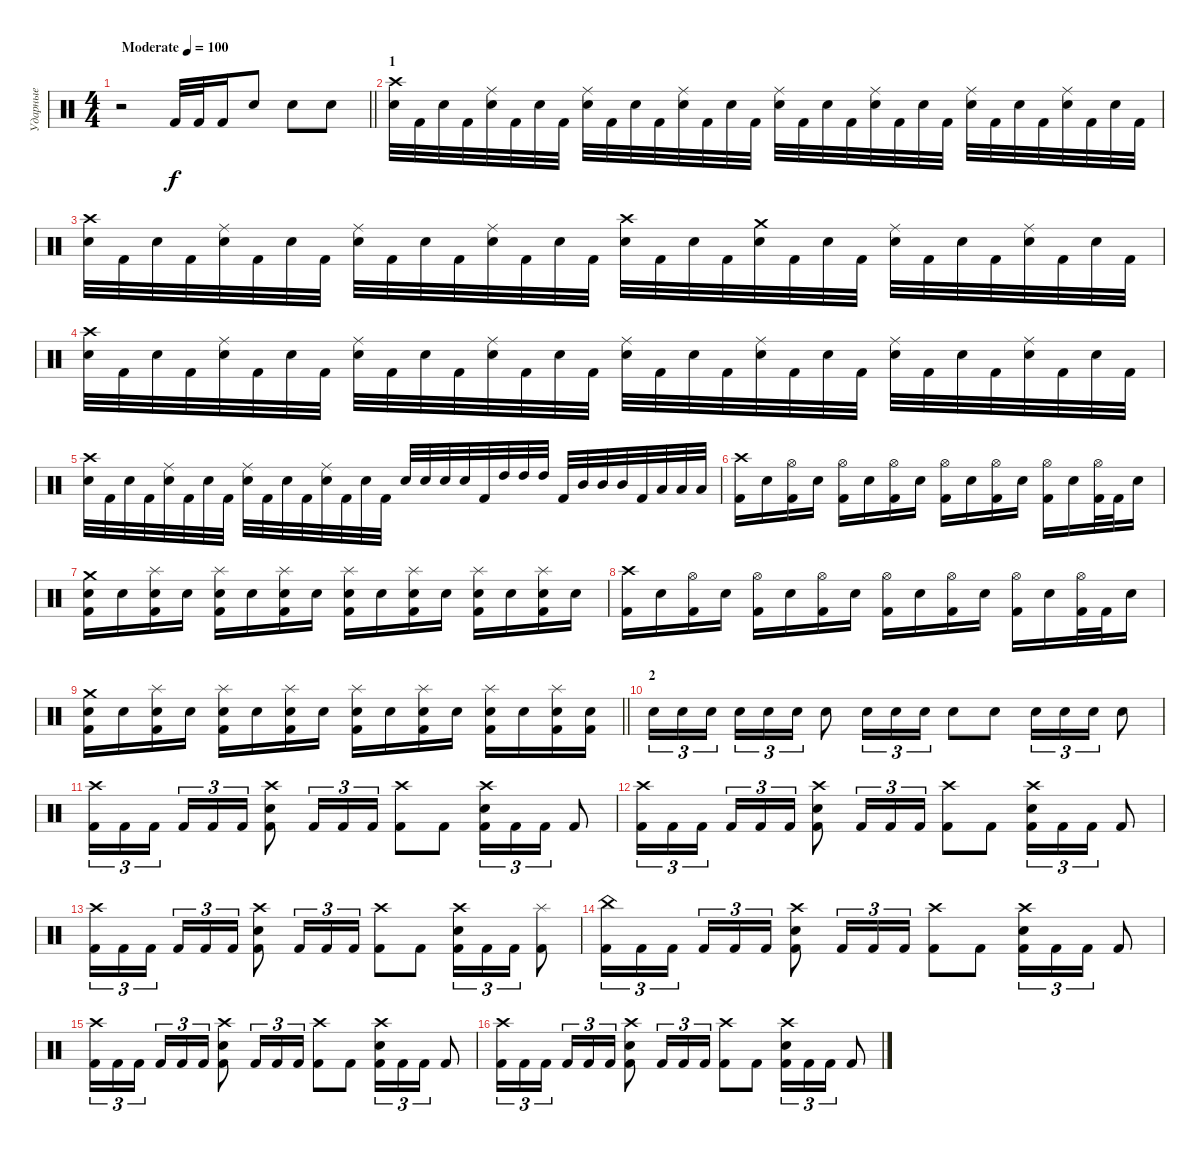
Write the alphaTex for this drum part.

\track ("Ударные" "Ударные") {instrument percussion}
\staff {score}
\articulation defaults
\ts (4 4)
\tempo (100 "Moderate")
\clef neutral
\barLineRight lightlight
\ks c
r.2{dy f} "Kick (hit) 2".32 "Kick (hit) 2".32 "Kick (hit) 2".16 "Electric Snare (hit)".8 "Electric Snare (hit)".8 "Electric Snare (hit)".8 |
\section ("" "1")
("Crash high (hit)" "Electric Snare (hit)").32 "Kick (hit) 2".32 "Electric Snare (hit)".32 "Kick (hit) 2".32 ("Ride (middle)" "Electric Snare (hit)").32 "Kick (hit) 2".32 "Electric Snare (hit)".32 "Kick (hit) 2".32 ("Ride (middle)" "Electric Snare (hit)").32 "Kick (hit) 2".32 "Electric Snare (hit)".32 "Kick (hit) 2".32 ("Ride (middle)" "Electric Snare (hit)").32 "Kick (hit) 2".32 "Electric Snare (hit)".32 "Kick (hit) 2".32 ("Ride (middle)" "Electric Snare (hit)").32 "Kick (hit) 2".32 "Electric Snare (hit)".32 "Kick (hit) 2".32 ("Ride (middle)" "Electric Snare (hit)").32 "Kick (hit) 2".32 "Electric Snare (hit)".32 "Kick (hit) 2".32 ("Ride (middle)" "Electric Snare (hit)").32 "Kick (hit) 2".32 "Electric Snare (hit)".32 "Kick (hit) 2".32 ("Ride (middle)" "Electric Snare (hit)").32 "Kick (hit) 2".32 "Electric Snare (hit)".32 "Kick (hit) 2".32 |
("Crash high (hit)" "Electric Snare (hit)").32 "Kick (hit) 2".32 "Electric Snare (hit)".32 "Kick (hit) 2".32 ("Ride (middle)" "Electric Snare (hit)").32 "Kick (hit) 2".32 "Electric Snare (hit)".32 "Kick (hit) 2".32 ("Ride (middle)" "Electric Snare (hit)").32 "Kick (hit) 2".32 "Electric Snare (hit)".32 "Kick (hit) 2".32 ("Ride (middle)" "Electric Snare (hit)").32 "Kick (hit) 2".32 "Electric Snare (hit)".32 "Kick (hit) 2".32 ("Crash high (hit)" "Electric Snare (hit)").32 "Kick (hit) 2".32 "Electric Snare (hit)".32 "Kick (hit) 2".32 ("Crash medium (hit)" "Electric Snare (hit)").32 "Kick (hit) 2".32 "Electric Snare (hit)".32 "Kick (hit) 2".32 ("Ride (middle)" "Electric Snare (hit)").32 "Kick (hit) 2".32 "Electric Snare (hit)".32 "Kick (hit) 2".32 ("Ride (middle)" "Electric Snare (hit)").32 "Kick (hit) 2".32 "Electric Snare (hit)".32 "Kick (hit) 2".32 |
("Crash high (hit)" "Electric Snare (hit)").32 "Kick (hit) 2".32 "Electric Snare (hit)".32 "Kick (hit) 2".32 ("Ride (middle)" "Electric Snare (hit)").32 "Kick (hit) 2".32 "Electric Snare (hit)".32 "Kick (hit) 2".32 ("Ride (middle)" "Electric Snare (hit)").32 "Kick (hit) 2".32 "Electric Snare (hit)".32 "Kick (hit) 2".32 ("Ride (middle)" "Electric Snare (hit)").32 "Kick (hit) 2".32 "Electric Snare (hit)".32 "Kick (hit) 2".32 ("Ride (middle)" "Electric Snare (hit)").32 "Kick (hit) 2".32 "Electric Snare (hit)".32 "Kick (hit) 2".32 ("Ride (middle)" "Electric Snare (hit)").32 "Kick (hit) 2".32 "Electric Snare (hit)".32 "Kick (hit) 2".32 ("Ride (middle)" "Electric Snare (hit)").32 "Kick (hit) 2".32 "Electric Snare (hit)".32 "Kick (hit) 2".32 ("Ride (middle)" "Electric Snare (hit)").32 "Kick (hit) 2".32 "Electric Snare (hit)".32 "Kick (hit) 2".32 |
("Crash high (hit)" "Electric Snare (hit)").32 "Kick (hit) 2".32 "Electric Snare (hit)".32 "Kick (hit) 2".32 ("Ride (middle)" "Electric Snare (hit)").32 "Kick (hit) 2".32 "Electric Snare (hit)".32 "Kick (hit) 2".32 ("Ride (middle)" "Electric Snare (hit)").32 "Kick (hit) 2".32 "Electric Snare (hit)".32 "Kick (hit) 2".32 ("Ride (middle)" "Electric Snare (hit)").32 "Kick (hit) 2".32 "Electric Snare (hit)".32 "Kick (hit) 2".32 "Electric Snare (hit)".32 "Electric Snare (hit)".32 "Electric Snare (hit)".32 "Electric Snare (hit)".32 "Kick (hit) 2".32 "High Tom (hit)".32 "High Tom (hit)".32 "High Tom (hit)".32 "Kick (hit) 2".32 "Mid Tom (hit)".32 "Mid Tom (hit)".32 "Mid Tom (hit)".32 "Kick (hit) 2".32 "Low Tom (hit)".32 "Low Tom (hit)".32 "Low Tom (hit)".32 |
("Crash high (hit)" "Kick (hit) 2").16 "Electric Snare (hit)".16 ("Hi-Hat (open)" "Kick (hit) 2").16 "Electric Snare (hit)".16 ("Hi-Hat (open)" "Kick (hit) 2").16 "Electric Snare (hit)".16 ("Hi-Hat (open)" "Kick (hit) 2").16 "Electric Snare (hit)".16 ("Hi-Hat (open)" "Kick (hit) 2").16 "Electric Snare (hit)".16 ("Hi-Hat (open)" "Kick (hit) 2").16 "Electric Snare (hit)".16 ("Hi-Hat (open)" "Kick (hit) 2").16 "Electric Snare (hit)".16 ("Hi-Hat (open)" "Kick (hit) 2").32 "Kick (hit) 2".32 "Electric Snare (hit)".16 |
("Crash medium (hit)" "Electric Snare (hit)" "Kick (hit) 2").16 "Electric Snare (hit)".16 ("Splash (hit)" "Electric Snare (hit)" "Kick (hit) 2").16 "Electric Snare (hit)".16 ("Splash (hit)" "Electric Snare (hit)" "Kick (hit) 2").16 "Electric Snare (hit)".16 ("Splash (hit)" "Electric Snare (hit)" "Kick (hit) 2").16 "Electric Snare (hit)".16 ("Splash (hit)" "Electric Snare (hit)" "Kick (hit) 2").16 "Electric Snare (hit)".16 ("Splash (hit)" "Electric Snare (hit)" "Kick (hit) 2").16 "Electric Snare (hit)".16 ("Splash (hit)" "Electric Snare (hit)" "Kick (hit) 2").16 "Electric Snare (hit)".16 ("Splash (hit)" "Electric Snare (hit)" "Kick (hit) 2").16 "Electric Snare (hit)".16 |
("Crash high (hit)" "Kick (hit) 2").16 "Electric Snare (hit)".16 ("Hi-Hat (open)" "Kick (hit) 2").16 "Electric Snare (hit)".16 ("Hi-Hat (open)" "Kick (hit) 2").16 "Electric Snare (hit)".16 ("Hi-Hat (open)" "Kick (hit) 2").16 "Electric Snare (hit)".16 ("Hi-Hat (open)" "Kick (hit) 2").16 "Electric Snare (hit)".16 ("Hi-Hat (open)" "Kick (hit) 2").16 "Electric Snare (hit)".16 ("Hi-Hat (open)" "Kick (hit) 2").16 "Electric Snare (hit)".16 ("Hi-Hat (open)" "Kick (hit) 2").32 "Kick (hit) 2".32 "Electric Snare (hit)".16 |
\barLineRight lightlight
("Crash medium (hit)" "Electric Snare (hit)" "Kick (hit) 2").16 "Electric Snare (hit)".16 ("Splash (hit)" "Electric Snare (hit)" "Kick (hit) 2").16 "Electric Snare (hit)".16 ("Splash (hit)" "Electric Snare (hit)" "Kick (hit) 2").16 "Electric Snare (hit)".16 ("Splash (hit)" "Electric Snare (hit)" "Kick (hit) 2").16 "Electric Snare (hit)".16 ("Splash (hit)" "Electric Snare (hit)" "Kick (hit) 2").16 "Electric Snare (hit)".16 ("Splash (hit)" "Electric Snare (hit)" "Kick (hit) 2").16 "Electric Snare (hit)".16 ("Splash (hit)" "Electric Snare (hit)" "Kick (hit) 2").16 "Electric Snare (hit)".16 ("Splash (hit)" "Electric Snare (hit)" "Kick (hit) 2").16 ("Electric Snare (hit)" "Kick (hit) 2").16 |
\section ("" "2")
"Electric Snare (hit)".16{tu (3 2)} "Electric Snare (hit)".16{tu (3 2)} "Electric Snare (hit)".16{tu (3 2) beam splitsecondary} "Electric Snare (hit)".16{tu (3 2)} "Electric Snare (hit)".16{tu (3 2)} "Electric Snare (hit)".16{tu (3 2)} "Electric Snare (hit)".8 "Electric Snare (hit)".16{tu (3 2)} "Electric Snare (hit)".16{tu (3 2)} "Electric Snare (hit)".16{tu (3 2)} "Electric Snare (hit)".8 "Electric Snare (hit)".8 "Electric Snare (hit)".16{tu (3 2)} "Electric Snare (hit)".16{tu (3 2)} "Electric Snare (hit)".16{tu (3 2)} "Electric Snare (hit)".8 |
("Crash high (hit)" "Kick (hit) 2").16{tu (3 2)} "Kick (hit) 2".16{tu (3 2)} "Kick (hit) 2".16{tu (3 2) beam splitsecondary} "Kick (hit) 2".16{tu (3 2)} "Kick (hit) 2".16{tu (3 2)} "Kick (hit) 2".16{tu (3 2)} ("Crash high (hit)" "Electric Snare (hit)" "Kick (hit) 2").8 "Kick (hit) 2".16{tu (3 2)} "Kick (hit) 2".16{tu (3 2)} "Kick (hit) 2".16{tu (3 2)} ("Crash high (hit)" "Kick (hit) 2").8 "Kick (hit) 2".8 ("Crash high (hit)" "Electric Snare (hit)" "Kick (hit) 2").16{tu (3 2)} "Kick (hit) 2".16{tu (3 2)} "Kick (hit) 2".16{tu (3 2)} "Kick (hit) 2".8 |
("Crash high (hit)" "Kick (hit) 2").16{tu (3 2)} "Kick (hit) 2".16{tu (3 2)} "Kick (hit) 2".16{tu (3 2) beam splitsecondary} "Kick (hit) 2".16{tu (3 2)} "Kick (hit) 2".16{tu (3 2)} "Kick (hit) 2".16{tu (3 2)} ("Crash high (hit)" "Electric Snare (hit)" "Kick (hit) 2").8 "Kick (hit) 2".16{tu (3 2)} "Kick (hit) 2".16{tu (3 2)} "Kick (hit) 2".16{tu (3 2)} ("Crash high (hit)" "Kick (hit) 2").8 "Kick (hit) 2".8 ("Crash high (hit)" "Electric Snare (hit)" "Kick (hit) 2").16{tu (3 2)} "Kick (hit) 2".16{tu (3 2)} "Kick (hit) 2".16{tu (3 2)} "Kick (hit) 2".8 |
("Crash high (hit)" "Kick (hit) 2").16{tu (3 2)} "Kick (hit) 2".16{tu (3 2)} "Kick (hit) 2".16{tu (3 2) beam splitsecondary} "Kick (hit) 2".16{tu (3 2)} "Kick (hit) 2".16{tu (3 2)} "Kick (hit) 2".16{tu (3 2)} ("Crash high (hit)" "Electric Snare (hit)" "Kick (hit) 2").8 "Kick (hit) 2".16{tu (3 2)} "Kick (hit) 2".16{tu (3 2)} "Kick (hit) 2".16{tu (3 2)} ("Crash high (hit)" "Kick (hit) 2").8 "Kick (hit) 2".8 ("Crash high (hit)" "Electric Snare (hit)" "Kick (hit) 2").16{tu (3 2)} "Kick (hit) 2".16{tu (3 2)} "Kick (hit) 2".16{tu (3 2)} ("Splash (hit)" "Kick (hit) 2").8 |
("China (hit)" "Kick (hit) 2").16{tu (3 2)} "Kick (hit) 2".16{tu (3 2)} "Kick (hit) 2".16{tu (3 2) beam splitsecondary} "Kick (hit) 2".16{tu (3 2)} "Kick (hit) 2".16{tu (3 2)} "Kick (hit) 2".16{tu (3 2)} ("Crash high (hit)" "Electric Snare (hit)" "Kick (hit) 2").8 "Kick (hit) 2".16{tu (3 2)} "Kick (hit) 2".16{tu (3 2)} "Kick (hit) 2".16{tu (3 2)} ("Crash high (hit)" "Kick (hit) 2").8 "Kick (hit) 2".8 ("Crash high (hit)" "Electric Snare (hit)" "Kick (hit) 2").16{tu (3 2)} "Kick (hit) 2".16{tu (3 2)} "Kick (hit) 2".16{tu (3 2)} "Kick (hit) 2".8 |
("Crash high (hit)" "Kick (hit) 2").16{tu (3 2)} "Kick (hit) 2".16{tu (3 2)} "Kick (hit) 2".16{tu (3 2) beam splitsecondary} "Kick (hit) 2".16{tu (3 2)} "Kick (hit) 2".16{tu (3 2)} "Kick (hit) 2".16{tu (3 2)} ("Crash high (hit)" "Electric Snare (hit)" "Kick (hit) 2").8 "Kick (hit) 2".16{tu (3 2)} "Kick (hit) 2".16{tu (3 2)} "Kick (hit) 2".16{tu (3 2)} ("Crash high (hit)" "Kick (hit) 2").8 "Kick (hit) 2".8 ("Crash high (hit)" "Electric Snare (hit)" "Kick (hit) 2").16{tu (3 2)} "Kick (hit) 2".16{tu (3 2)} "Kick (hit) 2".16{tu (3 2)} "Kick (hit) 2".8 |
("Crash high (hit)" "Kick (hit) 2").16{tu (3 2)} "Kick (hit) 2".16{tu (3 2)} "Kick (hit) 2".16{tu (3 2) beam splitsecondary} "Kick (hit) 2".16{tu (3 2)} "Kick (hit) 2".16{tu (3 2)} "Kick (hit) 2".16{tu (3 2)} ("Crash high (hit)" "Electric Snare (hit)" "Kick (hit) 2").8 "Kick (hit) 2".16{tu (3 2)} "Kick (hit) 2".16{tu (3 2)} "Kick (hit) 2".16{tu (3 2)} ("Crash high (hit)" "Kick (hit) 2").8 "Kick (hit) 2".8 ("Crash high (hit)" "Electric Snare (hit)" "Kick (hit) 2").16{tu (3 2)} "Kick (hit) 2".16{tu (3 2)} "Kick (hit) 2".16{tu (3 2)} "Kick (hit) 2".8
